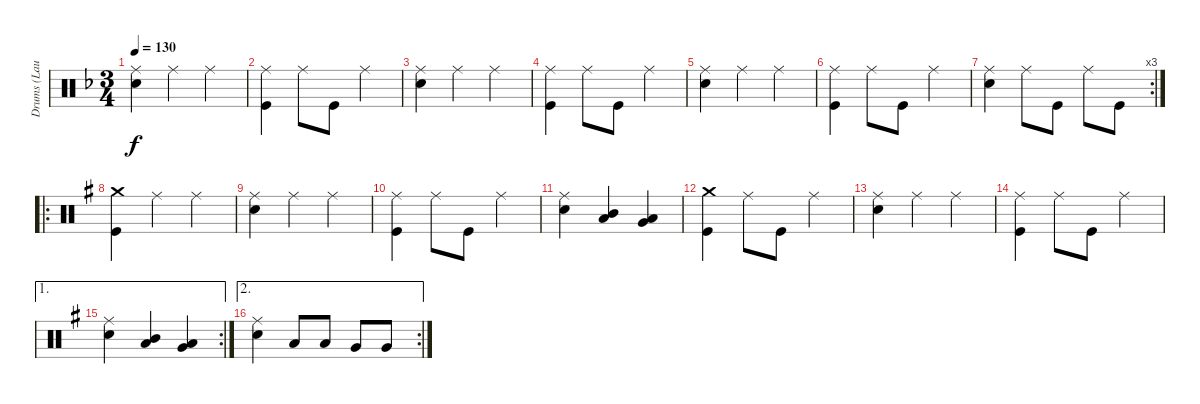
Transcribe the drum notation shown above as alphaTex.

\track ("Drums (Laura)" "Drums (Lau") {instrument percussion}
\staff {score}
\articulation defaults
\ts (3 4)
\tempo 130
\clef neutral
\ks dminor
("Ride (middle)" "Snare (hit) 2").4{dy f} "Ride (middle)".4 "Ride (middle)".4 |
("Ride (middle)" "Kick (hit)").4 "Ride (middle)".8 "Kick (hit)".8 "Ride (middle)".4 |
("Ride (middle)" "Snare (hit) 2").4 "Ride (middle)".4 "Ride (middle)".4 |
("Ride (middle)" "Kick (hit)").4 "Ride (middle)".8 "Kick (hit)".8 "Ride (middle)".4 |
("Ride (middle)" "Snare (hit) 2").4 "Ride (middle)".4 "Ride (middle)".4 |
("Ride (middle)" "Kick (hit)").4 "Ride (middle)".8 "Kick (hit)".8 "Ride (middle)".4 |
\rc 3
("Ride (middle)" "Snare (hit) 2").4 "Ride (middle)".8 "Kick (hit)".8 "Ride (middle)".8 "Kick (hit)".8 |
\ro
\ks eminor
("Crash medium (hit)" "Kick (hit)").4 "Ride (middle)".4 "Ride (middle)".4 |
("Ride (middle)" "Snare (hit) 2").4 "Ride (middle)".4 "Ride (middle)".4 |
("Ride (middle)" "Kick (hit)").4 "Ride (middle)".8 "Kick (hit)".8 "Ride (middle)".4 |
("Ride (middle)" "Snare (hit) 2").4 ("Mid Tom (hit)" "Low Tom (hit)").4 ("Low Tom (hit)" "Very Low Tom (hit)").4 |
("Crash medium (hit)" "Kick (hit)").4 "Ride (middle)".8 "Kick (hit)".8 "Ride (middle)".4 |
("Ride (middle)" "Snare (hit) 2").4 "Ride (middle)".4 "Ride (middle)".4 |
("Ride (middle)" "Kick (hit)").4 "Ride (middle)".8 "Kick (hit)".8 "Ride (middle)".4 |
\ae 1
\rc 2
("Ride (middle)" "Snare (hit) 2").4 ("Mid Tom (hit)" "Low Tom (hit)").4 ("Low Tom (hit)" "Very Low Tom (hit)").4 |
\ae 2
\rc 2
("Ride (middle)" "Snare (hit) 2").4 "Low Tom (hit)".8 "Low Tom (hit)".8 "Very Low Tom (hit)".8 "Very Low Tom (hit)".8
